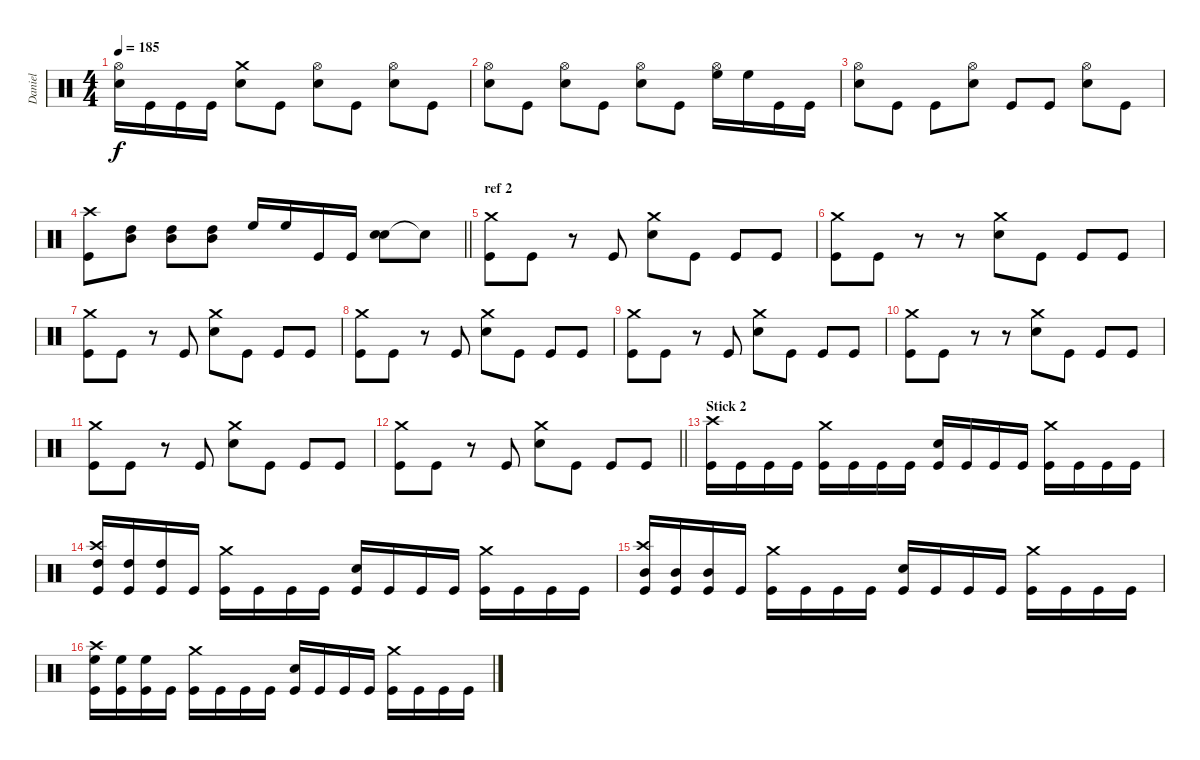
\track ("Daniel" "Daniel") {instrument percussion}
\staff {score}
\articulation defaults
\ts (4 4)
\tempo 185
\clef neutral
\ks c
("Hi-Hat (open)" "Electric Snare (hit)").16{dy f} "Kick (hit)".16 "Kick (hit)".16 "Kick (hit)".16 ("Crash medium (hit)" "Electric Snare (hit)").8 "Kick (hit)".8 ("Hi-Hat (open)" "Electric Snare (hit)").8 "Kick (hit)".8 ("Hi-Hat (open)" "Electric Snare (hit)").8 "Kick (hit)".8 |
("Hi-Hat (open)" "Electric Snare (hit)").8 "Kick (hit)".8 ("Hi-Hat (open)" "Electric Snare (hit)").8 "Kick (hit)".8 ("Hi-Hat (open)" "Electric Snare (hit)").8 "Kick (hit)".8 ("Hi-Hat (open)" "High Floor Tom (hit)").16 "High Floor Tom (hit)".16 "Kick (hit)".16 "Kick (hit)".16 |
("Hi-Hat (open)" "Electric Snare (hit)").8 "Kick (hit)".8 "Kick (hit)".8 ("Hi-Hat (open)" "Electric Snare (hit)").8 "Kick (hit)".8 "Kick (hit)".8 ("Hi-Hat (open)" "Electric Snare (hit)").8 "Kick (hit)".8 |
\barLineRight lightlight
("Crash high (hit)" "Kick (hit)").8 ("High Tom (hit)" "Mid Tom (hit)").8 ("High Tom (hit)" "Mid Tom (hit)").8 ("High Tom (hit)" "Mid Tom (hit)").8 "High Floor Tom (hit)".16 "High Floor Tom (hit)".16 "Kick (hit)".16 "Kick (hit)".16 ("Electric Snare (hit)" "Electric Snare (hit)").8 "Snare (hit)"{t}.8 |
\section ("" "ref 2")
("Crash medium (hit)" "Kick (hit)").8 "Kick (hit)".8 r.8 "Kick (hit)".8 ("Crash medium (hit)" "Electric Snare (hit)").8 "Kick (hit)".8 "Kick (hit)".8 "Kick (hit)".8 |
("Crash medium (hit)" "Kick (hit)").8 "Kick (hit)".8 r.8 r.8 ("Crash medium (hit)" "Electric Snare (hit)").8 "Kick (hit)".8 "Kick (hit)".8 "Kick (hit)".8 |
("Crash medium (hit)" "Kick (hit)").8 "Kick (hit)".8 r.8 "Kick (hit)".8 ("Crash medium (hit)" "Electric Snare (hit)").8 "Kick (hit)".8 "Kick (hit)".8 "Kick (hit)".8 |
("Crash medium (hit)" "Kick (hit)").8 "Kick (hit)".8 r.8 "Kick (hit)".8 ("Crash medium (hit)" "Electric Snare (hit)").8 "Kick (hit)".8 "Kick (hit)".8 "Kick (hit)".8 |
("Crash medium (hit)" "Kick (hit)").8 "Kick (hit)".8 r.8 "Kick (hit)".8 ("Crash medium (hit)" "Electric Snare (hit)").8 "Kick (hit)".8 "Kick (hit)".8 "Kick (hit)".8 |
("Crash medium (hit)" "Kick (hit)").8 "Kick (hit)".8 r.8 r.8 ("Crash medium (hit)" "Electric Snare (hit)").8 "Kick (hit)".8 "Kick (hit)".8 "Kick (hit)".8 |
("Crash medium (hit)" "Kick (hit)").8 "Kick (hit)".8 r.8 "Kick (hit)".8 ("Crash medium (hit)" "Electric Snare (hit)").8 "Kick (hit)".8 "Kick (hit)".8 "Kick (hit)".8 |
\barLineRight lightlight
("Crash medium (hit)" "Kick (hit)").8 "Kick (hit)".8 r.8 "Kick (hit)".8 ("Crash medium (hit)" "Electric Snare (hit)").8 "Kick (hit)".8 "Kick (hit)".8 "Kick (hit)".8 |
\section ("" "Stick 2")
("Crash high (hit)" "Kick (hit)").16 "Kick (hit)".16 "Kick (hit)".16 "Kick (hit)".16 ("Crash medium (hit)" "Kick (hit)").16 "Kick (hit)".16 "Kick (hit)".16 "Kick (hit)".16 ("Electric Snare (hit)" "Kick (hit)").16 "Kick (hit)".16 "Kick (hit)".16 "Kick (hit)".16 ("Crash medium (hit)" "Kick (hit)").16 "Kick (hit)".16 "Kick (hit)".16 "Kick (hit)".16 |
("Crash high (hit)" "High Tom (hit)" "Kick (hit)").16 ("High Tom (hit)" "Kick (hit)").16 ("High Tom (hit)" "Kick (hit)").16 "Kick (hit)".16 ("Crash medium (hit)" "Kick (hit)").16 "Kick (hit)".16 "Kick (hit)".16 "Kick (hit)".16 ("Electric Snare (hit)" "Kick (hit)").16 "Kick (hit)".16 "Kick (hit)".16 "Kick (hit)".16 ("Crash medium (hit)" "Kick (hit)").16 "Kick (hit)".16 "Kick (hit)".16 "Kick (hit)".16 |
("Crash high (hit)" "Mid Tom (hit)" "Kick (hit)").16 ("Mid Tom (hit)" "Kick (hit)").16 ("Mid Tom (hit)" "Kick (hit)").16 "Kick (hit)".16 ("Crash medium (hit)" "Kick (hit)").16 "Kick (hit)".16 "Kick (hit)".16 "Kick (hit)".16 ("Electric Snare (hit)" "Kick (hit)").16 "Kick (hit)".16 "Kick (hit)".16 "Kick (hit)".16 ("Crash medium (hit)" "Kick (hit)").16 "Kick (hit)".16 "Kick (hit)".16 "Kick (hit)".16 |
("Crash high (hit)" "High Floor Tom (hit)" "Kick (hit)").16 ("High Floor Tom (hit)" "Kick (hit)").16 ("High Floor Tom (hit)" "Kick (hit)").16 "Kick (hit)".16 ("Crash medium (hit)" "Kick (hit)").16 "Kick (hit)".16 "Kick (hit)".16 "Kick (hit)".16 ("Electric Snare (hit)" "Kick (hit)").16 "Kick (hit)".16 "Kick (hit)".16 "Kick (hit)".16 ("Crash medium (hit)" "Kick (hit)").16 "Kick (hit)".16 "Kick (hit)".16 "Kick (hit)".16
